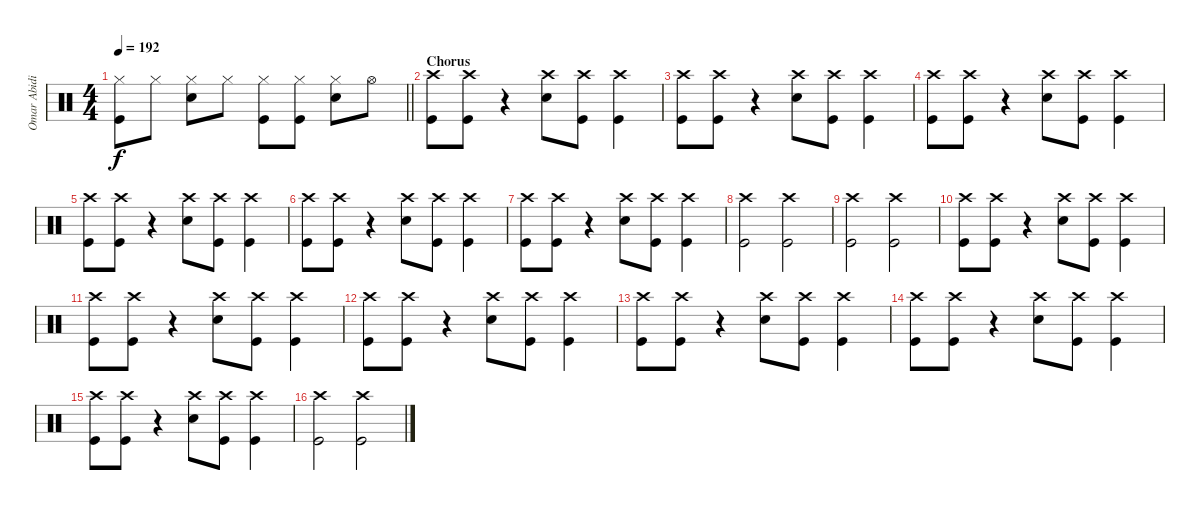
\track ("Omar Abidi" "Omar Abidi") {instrument percussion}
\staff {score}
\articulation defaults
\ts (4 4)
\tempo 192
\clef neutral
\barLineRight lightlight
\ks c
("Hi-Hat (closed)" "Kick (hit)").8{dy f} "Hi-Hat (closed)".8 ("Hi-Hat (closed)" "Electric Snare (hit)").8 "Hi-Hat (closed)".8 ("Hi-Hat (closed)" "Kick (hit)").8 ("Hi-Hat (closed)" "Kick (hit)").8 ("Hi-Hat (closed)" "Electric Snare (hit)").8 "Hi-Hat (open)".8 |
\section ("" "Chorus")
("Crash high (hit)" "Kick (hit)").8 ("Crash high (hit)" "Kick (hit)").8 r.4 ("Crash high (hit)" "Snare (hit) 2").8 ("Crash high (hit)" "Kick (hit)").8 ("Crash high (hit)" "Kick (hit)").4 |
("Crash high (hit)" "Kick (hit)").8 ("Crash high (hit)" "Kick (hit)").8 r.4 ("Crash high (hit)" "Snare (hit) 2").8 ("Crash high (hit)" "Kick (hit)").8 ("Crash high (hit)" "Kick (hit)").4 |
("Crash high (hit)" "Kick (hit)").8 ("Crash high (hit)" "Kick (hit)").8 r.4 ("Crash high (hit)" "Snare (hit) 2").8 ("Crash high (hit)" "Kick (hit)").8 ("Crash high (hit)" "Kick (hit)").4 |
("Crash high (hit)" "Kick (hit)").8 ("Crash high (hit)" "Kick (hit)").8 r.4 ("Crash high (hit)" "Snare (hit) 2").8 ("Crash high (hit)" "Kick (hit)").8 ("Crash high (hit)" "Kick (hit)").4 |
("Crash high (hit)" "Kick (hit)").8 ("Crash high (hit)" "Kick (hit)").8 r.4 ("Crash high (hit)" "Snare (hit) 2").8 ("Crash high (hit)" "Kick (hit)").8 ("Crash high (hit)" "Kick (hit)").4 |
("Crash high (hit)" "Kick (hit)").8 ("Crash high (hit)" "Kick (hit)").8 r.4 ("Crash high (hit)" "Snare (hit) 2").8 ("Crash high (hit)" "Kick (hit)").8 ("Crash high (hit)" "Kick (hit)").4 |
("Crash high (hit)" "Kick (hit)").2 ("Crash high (hit)" "Kick (hit)").2 |
("Crash high (hit)" "Kick (hit)").2 ("Crash high (hit)" "Kick (hit)").2 |
("Crash high (hit)" "Kick (hit)").8 ("Crash high (hit)" "Kick (hit)").8 r.4 ("Crash high (hit)" "Snare (hit) 2").8 ("Crash high (hit)" "Kick (hit)").8 ("Crash high (hit)" "Kick (hit)").4 |
("Crash high (hit)" "Kick (hit)").8 ("Crash high (hit)" "Kick (hit)").8 r.4 ("Crash high (hit)" "Snare (hit) 2").8 ("Crash high (hit)" "Kick (hit)").8 ("Crash high (hit)" "Kick (hit)").4 |
("Crash high (hit)" "Kick (hit)").8 ("Crash high (hit)" "Kick (hit)").8 r.4 ("Crash high (hit)" "Snare (hit) 2").8 ("Crash high (hit)" "Kick (hit)").8 ("Crash high (hit)" "Kick (hit)").4 |
("Crash high (hit)" "Kick (hit)").8 ("Crash high (hit)" "Kick (hit)").8 r.4 ("Crash high (hit)" "Snare (hit) 2").8 ("Crash high (hit)" "Kick (hit)").8 ("Crash high (hit)" "Kick (hit)").4 |
("Crash high (hit)" "Kick (hit)").8 ("Crash high (hit)" "Kick (hit)").8 r.4 ("Crash high (hit)" "Snare (hit) 2").8 ("Crash high (hit)" "Kick (hit)").8 ("Crash high (hit)" "Kick (hit)").4 |
("Crash high (hit)" "Kick (hit)").8 ("Crash high (hit)" "Kick (hit)").8 r.4 ("Crash high (hit)" "Snare (hit) 2").8 ("Crash high (hit)" "Kick (hit)").8 ("Crash high (hit)" "Kick (hit)").4 |
("Crash high (hit)" "Kick (hit)").2 ("Crash high (hit)" "Kick (hit)").2
